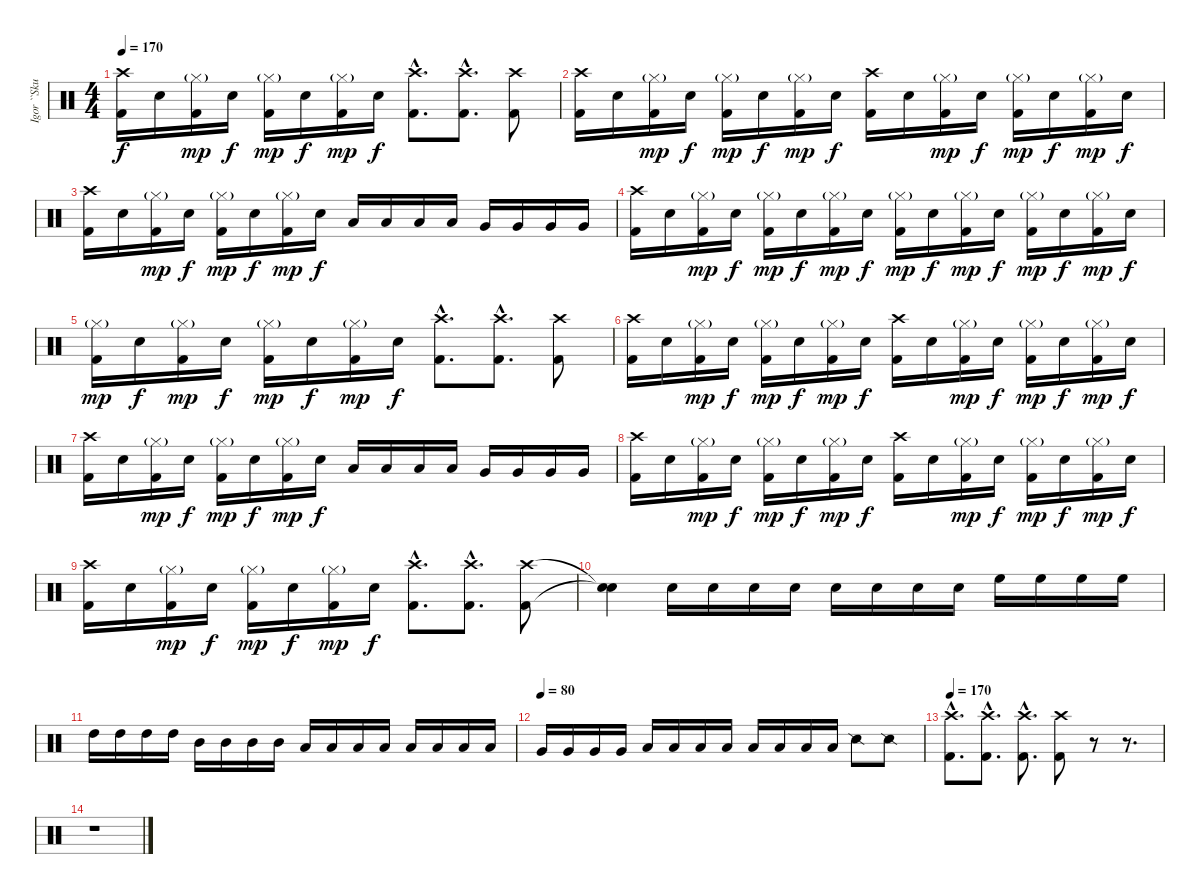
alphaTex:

\track ("Igor ``Skullcrusher`` Cavalera" "Igor ``Sku") {instrument percussion}
\staff {score}
\articulation defaults
\ts (4 4)
\tempo 170
\clef neutral
\ks c
("Crash high (hit)" "Kick (hit) 2").16{dy f} "Electric Snare (hit)".16 ("Hi-Hat (closed)"{g} "Kick (hit) 2").16{dy mp} "Electric Snare (hit)".16{dy f} ("Hi-Hat (closed)"{g} "Kick (hit) 2").16{dy mp} "Electric Snare (hit)".16{dy f} ("Hi-Hat (closed)"{g} "Kick (hit) 2").16{dy mp} "Electric Snare (hit)".16{dy f} ("Crash high (hit)"{hac} "Kick (hit) 2"{hac}).8{d} ("Crash high (hit)"{hac} "Kick (hit) 2"{hac}).8{d} ("Crash high (hit)" "Kick (hit) 2").8 |
("Crash high (hit)" "Kick (hit) 2").16 "Electric Snare (hit)".16 ("Hi-Hat (closed)"{g} "Kick (hit) 2").16{dy mp} "Electric Snare (hit)".16{dy f} ("Hi-Hat (closed)"{g} "Kick (hit) 2").16{dy mp} "Electric Snare (hit)".16{dy f} ("Hi-Hat (closed)"{g} "Kick (hit) 2").16{dy mp} "Electric Snare (hit)".16{dy f} ("Crash high (hit)" "Kick (hit) 2").16 "Electric Snare (hit)".16 ("Hi-Hat (closed)"{g} "Kick (hit) 2").16{dy mp} "Electric Snare (hit)".16{dy f} ("Hi-Hat (closed)"{g} "Kick (hit) 2").16{dy mp} "Electric Snare (hit)".16{dy f} ("Hi-Hat (closed)"{g} "Kick (hit) 2").16{dy mp} "Electric Snare (hit)".16{dy f} |
("Crash high (hit)" "Kick (hit) 2").16 "Electric Snare (hit)".16 ("Hi-Hat (closed)"{g} "Kick (hit) 2").16{dy mp} "Electric Snare (hit)".16{dy f} ("Hi-Hat (closed)"{g} "Kick (hit) 2").16{dy mp} "Electric Snare (hit)".16{dy f} ("Hi-Hat (closed)"{g} "Kick (hit) 2").16{dy mp} "Electric Snare (hit)".16{dy f} "Low Tom (hit)".16 "Low Tom (hit)".16 "Low Tom (hit)".16 "Low Tom (hit)".16 "Very Low Tom (hit)".16 "Very Low Tom (hit)".16 "Very Low Tom (hit)".16 "Very Low Tom (hit)".16 |
("Crash high (hit)" "Kick (hit) 2").16 "Electric Snare (hit)".16 ("Hi-Hat (closed)"{g} "Kick (hit) 2").16{dy mp} "Electric Snare (hit)".16{dy f} ("Hi-Hat (closed)"{g} "Kick (hit) 2").16{dy mp} "Electric Snare (hit)".16{dy f} ("Hi-Hat (closed)"{g} "Kick (hit) 2").16{dy mp} "Electric Snare (hit)".16{dy f} ("Hi-Hat (closed)"{g} "Kick (hit) 2").16{dy mp} "Electric Snare (hit)".16{dy f} ("Hi-Hat (closed)"{g} "Kick (hit) 2").16{dy mp} "Electric Snare (hit)".16{dy f} ("Hi-Hat (closed)"{g} "Kick (hit) 2").16{dy mp} "Electric Snare (hit)".16{dy f} ("Hi-Hat (closed)"{g} "Kick (hit) 2").16{dy mp} "Electric Snare (hit)".16{dy f} |
("Hi-Hat (closed)"{g} "Kick (hit) 2").16{dy mp} "Electric Snare (hit)".16{dy f} ("Hi-Hat (closed)"{g} "Kick (hit) 2").16{dy mp} "Electric Snare (hit)".16{dy f} ("Hi-Hat (closed)"{g} "Kick (hit) 2").16{dy mp} "Electric Snare (hit)".16{dy f} ("Hi-Hat (closed)"{g} "Kick (hit) 2").16{dy mp} "Electric Snare (hit)".16{dy f} ("Crash high (hit)"{hac} "Kick (hit) 2"{hac}).8{d} ("Crash high (hit)"{hac} "Kick (hit) 2"{hac}).8{d} ("Crash high (hit)" "Kick (hit) 2").8 |
("Crash high (hit)" "Kick (hit) 2").16 "Electric Snare (hit)".16 ("Hi-Hat (closed)"{g} "Kick (hit) 2").16{dy mp} "Electric Snare (hit)".16{dy f} ("Hi-Hat (closed)"{g} "Kick (hit) 2").16{dy mp} "Electric Snare (hit)".16{dy f} ("Hi-Hat (closed)"{g} "Kick (hit) 2").16{dy mp} "Electric Snare (hit)".16{dy f} ("Crash high (hit)" "Kick (hit) 2").16 "Electric Snare (hit)".16 ("Hi-Hat (closed)"{g} "Kick (hit) 2").16{dy mp} "Electric Snare (hit)".16{dy f} ("Hi-Hat (closed)"{g} "Kick (hit) 2").16{dy mp} "Electric Snare (hit)".16{dy f} ("Hi-Hat (closed)"{g} "Kick (hit) 2").16{dy mp} "Electric Snare (hit)".16{dy f} |
("Crash high (hit)" "Kick (hit) 2").16 "Electric Snare (hit)".16 ("Hi-Hat (closed)"{g} "Kick (hit) 2").16{dy mp} "Electric Snare (hit)".16{dy f} ("Hi-Hat (closed)"{g} "Kick (hit) 2").16{dy mp} "Electric Snare (hit)".16{dy f} ("Hi-Hat (closed)"{g} "Kick (hit) 2").16{dy mp} "Electric Snare (hit)".16{dy f} "Low Tom (hit)".16 "Low Tom (hit)".16 "Low Tom (hit)".16 "Low Tom (hit)".16 "Very Low Tom (hit)".16 "Very Low Tom (hit)".16 "Very Low Tom (hit)".16 "Very Low Tom (hit)".16 |
("Crash high (hit)" "Kick (hit) 2").16 "Electric Snare (hit)".16 ("Hi-Hat (closed)"{g} "Kick (hit) 2").16{dy mp} "Electric Snare (hit)".16{dy f} ("Hi-Hat (closed)"{g} "Kick (hit) 2").16{dy mp} "Electric Snare (hit)".16{dy f} ("Hi-Hat (closed)"{g} "Kick (hit) 2").16{dy mp} "Electric Snare (hit)".16{dy f} ("Crash high (hit)" "Kick (hit) 2").16 "Electric Snare (hit)".16 ("Hi-Hat (closed)"{g} "Kick (hit) 2").16{dy mp} "Electric Snare (hit)".16{dy f} ("Hi-Hat (closed)"{g} "Kick (hit) 2").16{dy mp} "Electric Snare (hit)".16{dy f} ("Hi-Hat (closed)"{g} "Kick (hit) 2").16{dy mp} "Electric Snare (hit)".16{dy f} |
("Crash high (hit)" "Kick (hit) 2").16 "Electric Snare (hit)".16 ("Hi-Hat (closed)"{g} "Kick (hit) 2").16{dy mp} "Electric Snare (hit)".16{dy f} ("Hi-Hat (closed)"{g} "Kick (hit) 2").16{dy mp} "Electric Snare (hit)".16{dy f} ("Hi-Hat (closed)"{g} "Kick (hit) 2").16{dy mp} "Electric Snare (hit)".16{dy f} ("Crash high (hit)"{hac} "Kick (hit) 2"{hac}).8{d} ("Crash high (hit)"{hac} "Kick (hit) 2"{hac}).8{d} ("Crash high (hit)" "Kick (hit) 2").8 |
("Snare (hit)"{t} "Snare (hit)"{t}).4 "Electric Snare (hit)".16 "Electric Snare (hit)".16 "Electric Snare (hit)".16 "Electric Snare (hit)".16 "Electric Snare (hit)".16 "Electric Snare (hit)".16 "Electric Snare (hit)".16 "Electric Snare (hit)".16 "High Floor Tom (hit)".16 "High Floor Tom (hit)".16 "High Floor Tom (hit)".16 "High Floor Tom (hit)".16 |
"High Tom (hit)".16 "High Tom (hit)".16 "High Tom (hit)".16 "High Tom (hit)".16 "Mid Tom (hit)".16 "Mid Tom (hit)".16 "Mid Tom (hit)".16 "Mid Tom (hit)".16 "Low Tom (hit)".16 "Low Tom (hit)".16 "Low Tom (hit)".16 "Low Tom (hit)".16 "Low Tom (hit)".16 "Low Tom (hit)".16 "Low Tom (hit)".16 "Low Tom (hit)".16 |
\tempo (80)
"Very Low Tom (hit)".16 "Very Low Tom (hit)".16 "Very Low Tom (hit)".16 "Very Low Tom (hit)".16 "Low Floor Tom (hit)".16 "Low Floor Tom (hit)".16 "Low Floor Tom (hit)".16 "Low Floor Tom (hit)".16 "Low Floor Tom (hit)".16 "Low Floor Tom (hit)".16 "Low Floor Tom (hit)".16 "Low Floor Tom (hit)".16 "Snare (side stick) 2".8 "Snare (side stick) 2".8 |
\tempo 170
("Crash high (hit)"{hac} "Kick (hit) 2"{hac}).8{d} ("Crash high (hit)"{hac} "Kick (hit) 2"{hac}).8{d} ("Crash high (hit)"{hac} "Kick (hit) 2"{hac}).8{d} ("Crash high (hit)" "Kick (hit) 2").8 r.8 r.8{d} |
r.1
